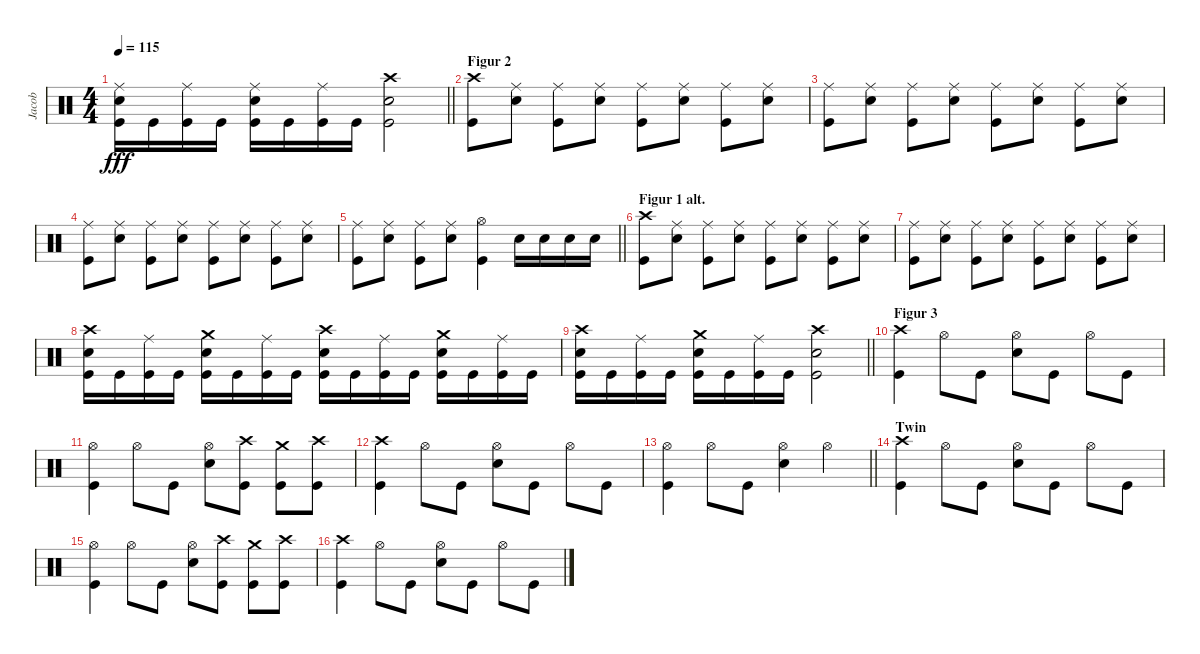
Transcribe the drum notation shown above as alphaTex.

\track ("Jacob" "Jacob") {instrument percussion}
\staff {score}
\articulation defaults
\ts (4 4)
\tempo 115
\clef neutral
\barLineRight lightlight
\ks c
("Kick (hit)" "Electric Snare (hit)" "Ride (middle)").16{dy fff} "Kick (hit)".16 ("Kick (hit)" "Ride (middle)").16 "Kick (hit)".16 ("Kick (hit)" "Electric Snare (hit)" "Ride (middle)").16 "Kick (hit)".16 ("Kick (hit)" "Ride (middle)").16 "Kick (hit)".16 ("Kick (hit)" "Electric Snare (hit)" "Crash high (hit)").2 |
\section ("" "Figur 2")
("Kick (hit)" "Crash high (hit)").8 ("Electric Snare (hit)" "Ride (middle)").8 ("Kick (hit)" "Ride (middle)").8 ("Electric Snare (hit)" "Ride (middle)").8 ("Kick (hit)" "Ride (middle)").8 ("Electric Snare (hit)" "Ride (middle)").8 ("Kick (hit)" "Ride (middle)").8 ("Electric Snare (hit)" "Ride (middle)").8 |
("Kick (hit)" "Ride (middle)").8 ("Electric Snare (hit)" "Ride (middle)").8 ("Kick (hit)" "Ride (middle)").8 ("Electric Snare (hit)" "Ride (middle)").8 ("Kick (hit)" "Ride (middle)").8 ("Electric Snare (hit)" "Ride (middle)").8 ("Kick (hit)" "Ride (middle)").8 ("Electric Snare (hit)" "Ride (middle)").8 |
("Kick (hit)" "Ride (middle)").8 ("Electric Snare (hit)" "Ride (middle)").8 ("Kick (hit)" "Ride (middle)").8 ("Electric Snare (hit)" "Ride (middle)").8 ("Kick (hit)" "Ride (middle)").8 ("Electric Snare (hit)" "Ride (middle)").8 ("Kick (hit)" "Ride (middle)").8 ("Electric Snare (hit)" "Ride (middle)").8 |
\barLineRight lightlight
("Kick (hit)" "Ride (middle)").8 ("Electric Snare (hit)" "Ride (middle)").8 ("Kick (hit)" "Ride (middle)").8 ("Electric Snare (hit)" "Ride (middle)").8 ("Kick (hit)" "Hi-Hat (open)").4 "Electric Snare (hit)".16 "Electric Snare (hit)".16 "Electric Snare (hit)".16 "Electric Snare (hit)".16 |
\section ("" "Figur 1 alt.")
("Kick (hit)" "Crash high (hit)").8 ("Electric Snare (hit)" "Ride (middle)").8 ("Kick (hit)" "Ride (middle)").8 ("Electric Snare (hit)" "Ride (middle)").8 ("Kick (hit)" "Ride (middle)").8 ("Electric Snare (hit)" "Ride (middle)").8 ("Kick (hit)" "Ride (middle)").8 ("Electric Snare (hit)" "Ride (middle)").8 |
("Kick (hit)" "Ride (middle)").8 ("Electric Snare (hit)" "Ride (middle)").8 ("Kick (hit)" "Ride (middle)").8 ("Electric Snare (hit)" "Ride (middle)").8 ("Kick (hit)" "Ride (middle)").8 ("Electric Snare (hit)" "Ride (middle)").8 ("Kick (hit)" "Ride (middle)").8 ("Electric Snare (hit)" "Ride (middle)").8 |
("Kick (hit)" "Electric Snare (hit)" "Crash high (hit)").16 "Kick (hit)".16 ("Kick (hit)" "Ride (middle)").16 "Kick (hit)".16 ("Kick (hit)" "Electric Snare (hit)" "Crash medium (hit)").16 "Kick (hit)".16 ("Kick (hit)" "Ride (middle)").16 "Kick (hit)".16 ("Kick (hit)" "Electric Snare (hit)" "Crash high (hit)").16 "Kick (hit)".16 ("Kick (hit)" "Ride (middle)").16 "Kick (hit)".16 ("Kick (hit)" "Electric Snare (hit)" "Crash medium (hit)").16 "Kick (hit)".16 ("Kick (hit)" "Ride (middle)").16 "Kick (hit)".16 |
\barLineRight lightlight
("Kick (hit)" "Electric Snare (hit)" "Crash high (hit)").16 "Kick (hit)".16 ("Kick (hit)" "Ride (middle)").16 "Kick (hit)".16 ("Kick (hit)" "Electric Snare (hit)" "Crash medium (hit)").16 "Kick (hit)".16 ("Kick (hit)" "Ride (middle)").16 "Kick (hit)".16 ("Kick (hit)" "Electric Snare (hit)" "Crash high (hit)").2 |
\section ("" "Figur 3")
("Kick (hit)" "Crash high (hit)").4 "Hi-Hat (open)".8 "Kick (hit)".8 ("Electric Snare (hit)" "Hi-Hat (open)").8 "Kick (hit)".8 "Hi-Hat (open)".8 "Kick (hit)".8 |
("Kick (hit)" "Hi-Hat (open)").4 "Hi-Hat (open)".8 "Kick (hit)".8 ("Electric Snare (hit)" "Hi-Hat (open)").8 ("Kick (hit)" "Crash high (hit)").8 ("Kick (hit)" "Crash medium (hit)").8 ("Kick (hit)" "Crash high (hit)").8 |
("Kick (hit)" "Crash high (hit)").4 "Hi-Hat (open)".8 "Kick (hit)".8 ("Electric Snare (hit)" "Hi-Hat (open)").8 "Kick (hit)".8 "Hi-Hat (open)".8 "Kick (hit)".8 |
\barLineRight lightlight
("Kick (hit)" "Hi-Hat (open)").4 "Hi-Hat (open)".8 "Kick (hit)".8 ("Electric Snare (hit)" "Hi-Hat (open)").4 "Hi-Hat (open)".4 |
\section ("" "Twin")
("Kick (hit)" "Crash high (hit)").4 "Hi-Hat (open)".8 "Kick (hit)".8 ("Electric Snare (hit)" "Hi-Hat (open)").8 "Kick (hit)".8 "Hi-Hat (open)".8 "Kick (hit)".8 |
("Kick (hit)" "Hi-Hat (open)").4 "Hi-Hat (open)".8 "Kick (hit)".8 ("Electric Snare (hit)" "Hi-Hat (open)").8 ("Kick (hit)" "Crash high (hit)").8 ("Kick (hit)" "Crash medium (hit)").8 ("Kick (hit)" "Crash high (hit)").8 |
("Kick (hit)" "Crash high (hit)").4 "Hi-Hat (open)".8 "Kick (hit)".8 ("Electric Snare (hit)" "Hi-Hat (open)").8 "Kick (hit)".8 "Hi-Hat (open)".8 "Kick (hit)".8
